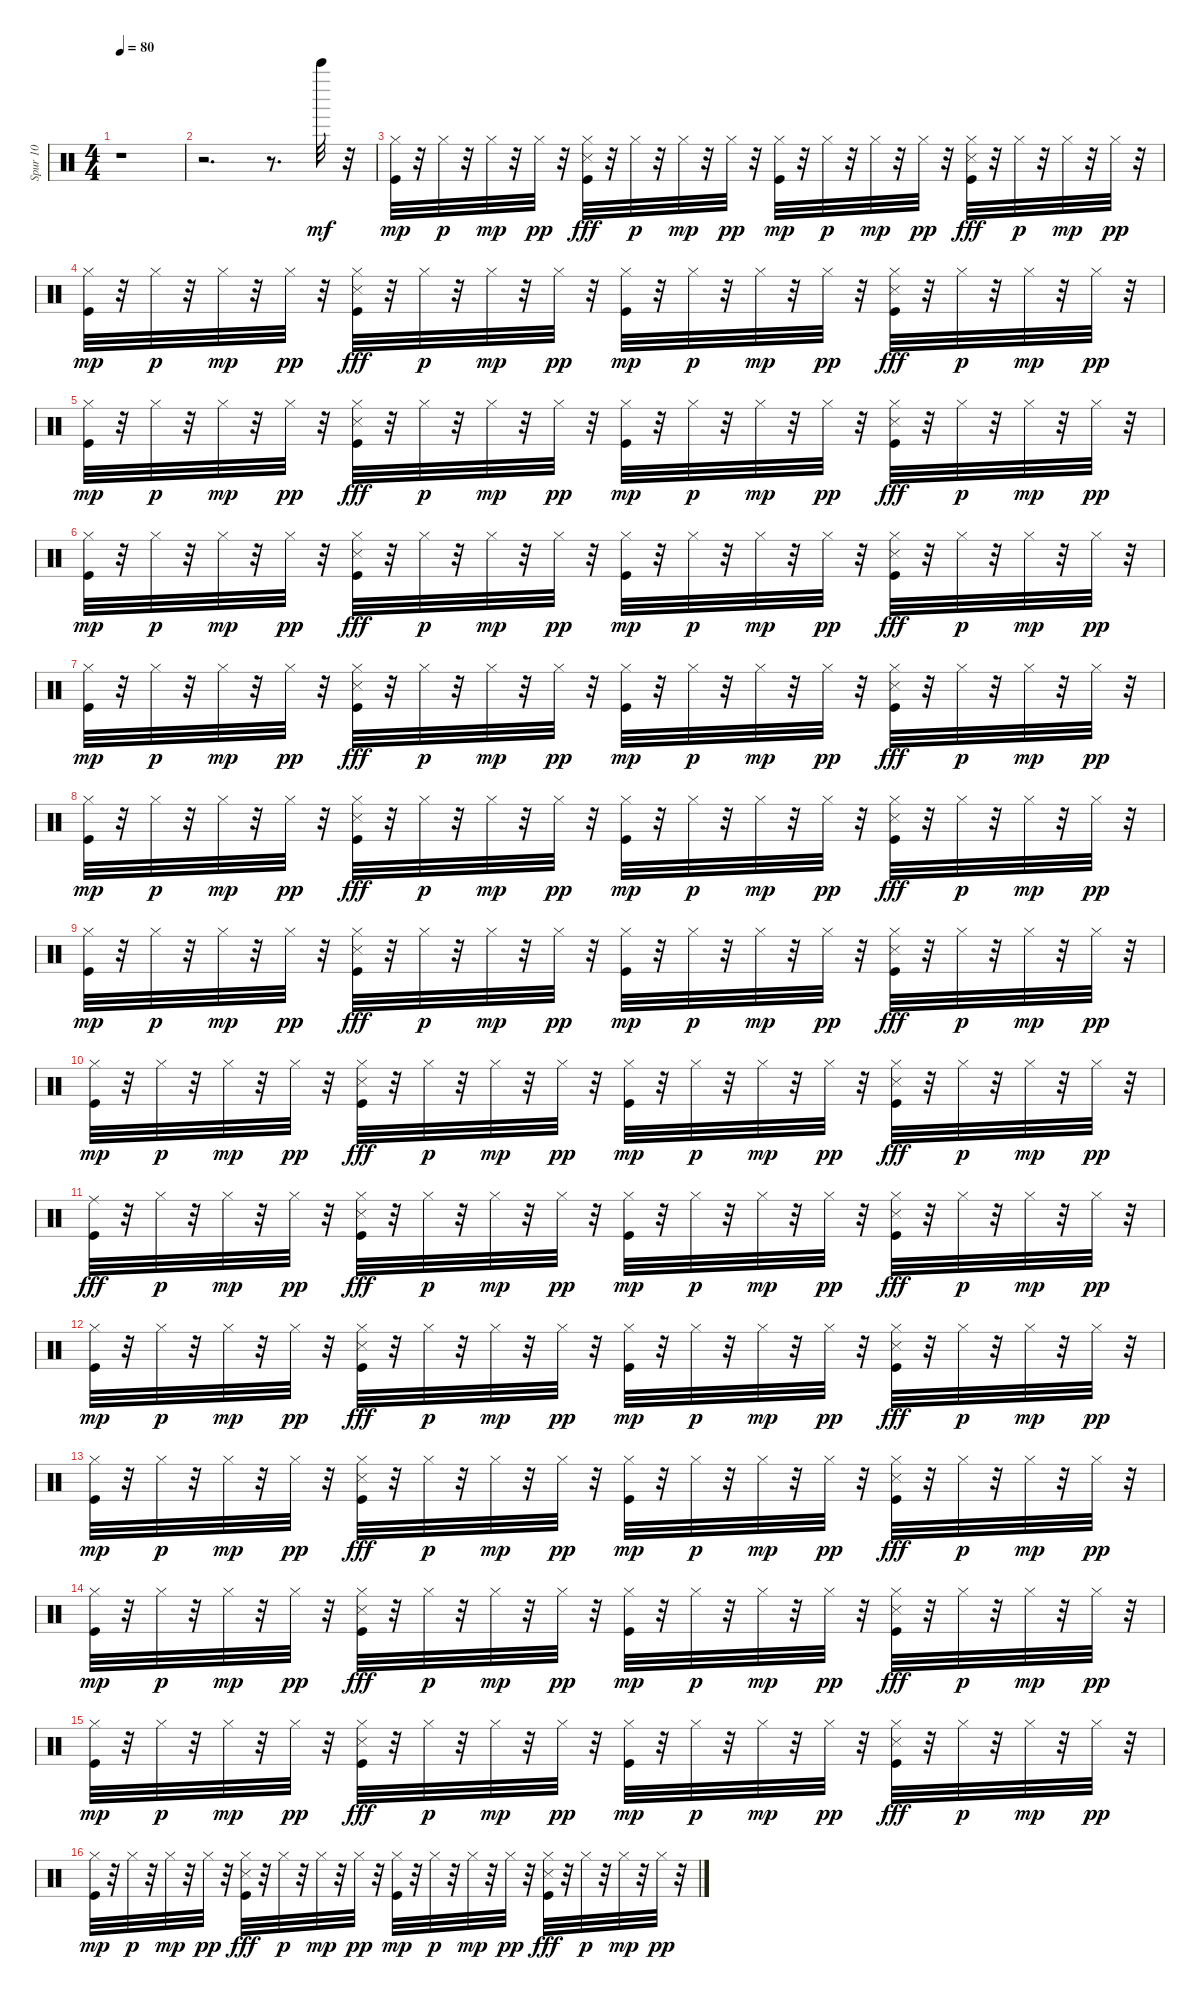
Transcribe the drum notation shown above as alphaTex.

\track ("Spur 10" "Spur 10") {instrument percussion}
\staff {score}
\articulation defaults
\ts (4 4)
\tempo 80
\clef neutral
\ks c
r.1{dy mf} |
r.2{d} r.8{d} "Bell Tree (hit)".32{volume 15} r.32 |
("Hi-Hat (closed)" "Kick (hit)").32{dy mp} r.32 "Hi-Hat (closed)".32{dy p} r.32 "Hi-Hat (closed)".32{dy mp} r.32 "Hi-Hat (closed)".32{dy pp} r.32 ("Hi-Hat (closed)" "Snare (side stick) 3" "Kick (hit)").32{dy fff} r.32 "Hi-Hat (closed)".32{dy p} r.32 "Hi-Hat (closed)".32{dy mp} r.32 "Hi-Hat (closed)".32{dy pp} r.32 ("Hi-Hat (closed)" "Kick (hit)").32{dy mp} r.32 "Hi-Hat (closed)".32{dy p} r.32 "Hi-Hat (closed)".32{dy mp} r.32 "Hi-Hat (closed)".32{dy pp} r.32 ("Hi-Hat (closed)" "Snare (side stick) 3" "Kick (hit)").32{dy fff} r.32 "Hi-Hat (closed)".32{dy p} r.32 "Hi-Hat (closed)".32{dy mp} r.32 "Hi-Hat (closed)".32{dy pp} r.32 |
("Hi-Hat (closed)" "Kick (hit)").32{dy mp} r.32 "Hi-Hat (closed)".32{dy p} r.32 "Hi-Hat (closed)".32{dy mp} r.32 "Hi-Hat (closed)".32{dy pp} r.32 ("Hi-Hat (closed)" "Snare (side stick) 3" "Kick (hit)").32{dy fff} r.32 "Hi-Hat (closed)".32{dy p} r.32 "Hi-Hat (closed)".32{dy mp} r.32 "Hi-Hat (closed)".32{dy pp} r.32 ("Hi-Hat (closed)" "Kick (hit)").32{dy mp} r.32 "Hi-Hat (closed)".32{dy p} r.32 "Hi-Hat (closed)".32{dy mp} r.32 "Hi-Hat (closed)".32{dy pp} r.32 ("Hi-Hat (closed)" "Snare (side stick) 3" "Kick (hit)").32{dy fff} r.32 "Hi-Hat (closed)".32{dy p} r.32 "Hi-Hat (closed)".32{dy mp} r.32 "Hi-Hat (closed)".32{dy pp} r.32 |
("Hi-Hat (closed)" "Kick (hit)").32{dy mp} r.32 "Hi-Hat (closed)".32{dy p} r.32 "Hi-Hat (closed)".32{dy mp} r.32 "Hi-Hat (closed)".32{dy pp} r.32 ("Hi-Hat (closed)" "Snare (side stick) 3" "Kick (hit)").32{dy fff} r.32 "Hi-Hat (closed)".32{dy p} r.32 "Hi-Hat (closed)".32{dy mp} r.32 "Hi-Hat (closed)".32{dy pp} r.32 ("Hi-Hat (closed)" "Kick (hit)").32{dy mp} r.32 "Hi-Hat (closed)".32{dy p} r.32 "Hi-Hat (closed)".32{dy mp} r.32 "Hi-Hat (closed)".32{dy pp} r.32 ("Hi-Hat (closed)" "Snare (side stick) 3" "Kick (hit)").32{dy fff} r.32 "Hi-Hat (closed)".32{dy p} r.32 "Hi-Hat (closed)".32{dy mp} r.32 "Hi-Hat (closed)".32{dy pp} r.32 |
("Hi-Hat (closed)" "Kick (hit)").32{dy mp} r.32 "Hi-Hat (closed)".32{dy p} r.32 "Hi-Hat (closed)".32{dy mp} r.32 "Hi-Hat (closed)".32{dy pp} r.32 ("Hi-Hat (closed)" "Snare (side stick) 3" "Kick (hit)").32{dy fff} r.32 "Hi-Hat (closed)".32{dy p} r.32 "Hi-Hat (closed)".32{dy mp} r.32 "Hi-Hat (closed)".32{dy pp} r.32 ("Hi-Hat (closed)" "Kick (hit)").32{dy mp} r.32 "Hi-Hat (closed)".32{dy p} r.32 "Hi-Hat (closed)".32{dy mp} r.32 "Hi-Hat (closed)".32{dy pp} r.32 ("Hi-Hat (closed)" "Snare (side stick) 3" "Kick (hit)").32{dy fff} r.32 "Hi-Hat (closed)".32{dy p} r.32 "Hi-Hat (closed)".32{dy mp} r.32 "Hi-Hat (closed)".32{dy pp} r.32 |
("Hi-Hat (closed)" "Kick (hit)").32{dy mp} r.32 "Hi-Hat (closed)".32{dy p} r.32 "Hi-Hat (closed)".32{dy mp} r.32 "Hi-Hat (closed)".32{dy pp} r.32 ("Hi-Hat (closed)" "Snare (side stick) 3" "Kick (hit)").32{dy fff} r.32 "Hi-Hat (closed)".32{dy p} r.32 "Hi-Hat (closed)".32{dy mp} r.32 "Hi-Hat (closed)".32{dy pp} r.32 ("Hi-Hat (closed)" "Kick (hit)").32{dy mp} r.32 "Hi-Hat (closed)".32{dy p} r.32 "Hi-Hat (closed)".32{dy mp} r.32 "Hi-Hat (closed)".32{dy pp} r.32 ("Hi-Hat (closed)" "Snare (side stick) 3" "Kick (hit)").32{dy fff} r.32 "Hi-Hat (closed)".32{dy p} r.32 "Hi-Hat (closed)".32{dy mp} r.32 "Hi-Hat (closed)".32{dy pp} r.32 |
("Hi-Hat (closed)" "Kick (hit)").32{dy mp} r.32 "Hi-Hat (closed)".32{dy p} r.32 "Hi-Hat (closed)".32{dy mp} r.32 "Hi-Hat (closed)".32{dy pp} r.32 ("Hi-Hat (closed)" "Snare (side stick) 3" "Kick (hit)").32{dy fff} r.32 "Hi-Hat (closed)".32{dy p} r.32 "Hi-Hat (closed)".32{dy mp} r.32 "Hi-Hat (closed)".32{dy pp} r.32 ("Hi-Hat (closed)" "Kick (hit)").32{dy mp} r.32 "Hi-Hat (closed)".32{dy p} r.32 "Hi-Hat (closed)".32{dy mp} r.32 "Hi-Hat (closed)".32{dy pp} r.32 ("Hi-Hat (closed)" "Snare (side stick) 3" "Kick (hit)").32{dy fff} r.32 "Hi-Hat (closed)".32{dy p} r.32 "Hi-Hat (closed)".32{dy mp} r.32 "Hi-Hat (closed)".32{dy pp} r.32 |
("Hi-Hat (closed)" "Kick (hit)").32{dy mp} r.32 "Hi-Hat (closed)".32{dy p} r.32 "Hi-Hat (closed)".32{dy mp} r.32 "Hi-Hat (closed)".32{dy pp} r.32 ("Hi-Hat (closed)" "Snare (side stick) 3" "Kick (hit)").32{dy fff} r.32 "Hi-Hat (closed)".32{dy p} r.32 "Hi-Hat (closed)".32{dy mp} r.32 "Hi-Hat (closed)".32{dy pp} r.32 ("Hi-Hat (closed)" "Kick (hit)").32{dy mp} r.32 "Hi-Hat (closed)".32{dy p} r.32 "Hi-Hat (closed)".32{dy mp} r.32 "Hi-Hat (closed)".32{dy pp} r.32 ("Hi-Hat (closed)" "Snare (side stick) 3" "Kick (hit)").32{dy fff} r.32 "Hi-Hat (closed)".32{dy p} r.32 "Hi-Hat (closed)".32{dy mp} r.32 "Hi-Hat (closed)".32{dy pp} r.32 |
("Hi-Hat (closed)" "Kick (hit)").32{dy mp} r.32 "Hi-Hat (closed)".32{dy p} r.32 "Hi-Hat (closed)".32{dy mp} r.32 "Hi-Hat (closed)".32{dy pp} r.32 ("Hi-Hat (closed)" "Snare (side stick) 3" "Kick (hit)").32{dy fff} r.32 "Hi-Hat (closed)".32{dy p} r.32 "Hi-Hat (closed)".32{dy mp} r.32 "Hi-Hat (closed)".32{dy pp} r.32 ("Hi-Hat (closed)" "Kick (hit)").32{dy mp} r.32 "Hi-Hat (closed)".32{dy p} r.32 "Hi-Hat (closed)".32{dy mp} r.32 "Hi-Hat (closed)".32{dy pp} r.32 ("Hi-Hat (closed)" "Snare (side stick) 3" "Kick (hit)").32{dy fff} r.32 "Hi-Hat (closed)".32{dy p} r.32 "Hi-Hat (closed)".32{dy mp} r.32 "Hi-Hat (closed)".32{dy pp} r.32 |
("Ride (middle)" "Kick (hit)").32{dy fff} r.32 "Hi-Hat (closed)".32{dy p} r.32 "Hi-Hat (closed)".32{dy mp} r.32 "Hi-Hat (closed)".32{dy pp} r.32 ("Hi-Hat (closed)" "Snare (side stick) 3" "Kick (hit)").32{dy fff} r.32 "Hi-Hat (closed)".32{dy p} r.32 "Hi-Hat (closed)".32{dy mp} r.32 "Hi-Hat (closed)".32{dy pp} r.32 ("Hi-Hat (closed)" "Kick (hit)").32{dy mp} r.32 "Hi-Hat (closed)".32{dy p} r.32 "Hi-Hat (closed)".32{dy mp} r.32 "Hi-Hat (closed)".32{dy pp} r.32 ("Hi-Hat (closed)" "Snare (side stick) 3" "Kick (hit)").32{dy fff} r.32 "Hi-Hat (closed)".32{dy p} r.32 "Hi-Hat (closed)".32{dy mp} r.32 "Hi-Hat (closed)".32{dy pp} r.32 |
("Hi-Hat (closed)" "Kick (hit)").32{dy mp} r.32 "Hi-Hat (closed)".32{dy p} r.32 "Hi-Hat (closed)".32{dy mp} r.32 "Hi-Hat (closed)".32{dy pp} r.32 ("Hi-Hat (closed)" "Snare (side stick) 3" "Kick (hit)").32{dy fff} r.32 "Hi-Hat (closed)".32{dy p} r.32 "Hi-Hat (closed)".32{dy mp} r.32 "Hi-Hat (closed)".32{dy pp} r.32 ("Hi-Hat (closed)" "Kick (hit)").32{dy mp} r.32 "Hi-Hat (closed)".32{dy p} r.32 "Hi-Hat (closed)".32{dy mp} r.32 "Hi-Hat (closed)".32{dy pp} r.32 ("Hi-Hat (closed)" "Snare (side stick) 3" "Kick (hit)").32{dy fff} r.32 "Hi-Hat (closed)".32{dy p} r.32 "Hi-Hat (closed)".32{dy mp} r.32 "Hi-Hat (closed)".32{dy pp} r.32 |
("Hi-Hat (closed)" "Kick (hit)").32{dy mp} r.32 "Hi-Hat (closed)".32{dy p} r.32 "Hi-Hat (closed)".32{dy mp} r.32 "Hi-Hat (closed)".32{dy pp} r.32 ("Hi-Hat (closed)" "Snare (side stick) 3" "Kick (hit)").32{dy fff} r.32 "Hi-Hat (closed)".32{dy p} r.32 "Hi-Hat (closed)".32{dy mp} r.32 "Hi-Hat (closed)".32{dy pp} r.32 ("Hi-Hat (closed)" "Kick (hit)").32{dy mp} r.32 "Hi-Hat (closed)".32{dy p} r.32 "Hi-Hat (closed)".32{dy mp} r.32 "Hi-Hat (closed)".32{dy pp} r.32 ("Hi-Hat (closed)" "Snare (side stick) 3" "Kick (hit)").32{dy fff} r.32 "Hi-Hat (closed)".32{dy p} r.32 "Hi-Hat (closed)".32{dy mp} r.32 "Hi-Hat (closed)".32{dy pp} r.32 |
("Hi-Hat (closed)" "Kick (hit)").32{dy mp} r.32 "Hi-Hat (closed)".32{dy p} r.32 "Hi-Hat (closed)".32{dy mp} r.32 "Hi-Hat (closed)".32{dy pp} r.32 ("Hi-Hat (closed)" "Snare (side stick) 3" "Kick (hit)").32{dy fff} r.32 "Hi-Hat (closed)".32{dy p} r.32 "Hi-Hat (closed)".32{dy mp} r.32 "Hi-Hat (closed)".32{dy pp} r.32 ("Hi-Hat (closed)" "Kick (hit)").32{dy mp} r.32 "Hi-Hat (closed)".32{dy p} r.32 "Hi-Hat (closed)".32{dy mp} r.32 "Hi-Hat (closed)".32{dy pp} r.32 ("Hi-Hat (closed)" "Snare (side stick) 3" "Kick (hit)").32{dy fff} r.32 "Hi-Hat (closed)".32{dy p} r.32 "Hi-Hat (closed)".32{dy mp} r.32 "Hi-Hat (closed)".32{dy pp} r.32 |
("Hi-Hat (closed)" "Kick (hit)").32{dy mp} r.32 "Hi-Hat (closed)".32{dy p} r.32 "Hi-Hat (closed)".32{dy mp} r.32 "Hi-Hat (closed)".32{dy pp} r.32 ("Hi-Hat (closed)" "Snare (side stick) 3" "Kick (hit)").32{dy fff} r.32 "Hi-Hat (closed)".32{dy p} r.32 "Hi-Hat (closed)".32{dy mp} r.32 "Hi-Hat (closed)".32{dy pp} r.32 ("Hi-Hat (closed)" "Kick (hit)").32{dy mp} r.32 "Hi-Hat (closed)".32{dy p} r.32 "Hi-Hat (closed)".32{dy mp} r.32 "Hi-Hat (closed)".32{dy pp} r.32 ("Hi-Hat (closed)" "Snare (side stick) 3" "Kick (hit)").32{dy fff} r.32 "Hi-Hat (closed)".32{dy p} r.32 "Hi-Hat (closed)".32{dy mp} r.32 "Hi-Hat (closed)".32{dy pp} r.32 |
("Hi-Hat (closed)" "Kick (hit)").32{dy mp} r.32 "Hi-Hat (closed)".32{dy p} r.32 "Hi-Hat (closed)".32{dy mp} r.32 "Hi-Hat (closed)".32{dy pp} r.32 ("Hi-Hat (closed)" "Snare (side stick) 3" "Kick (hit)").32{dy fff} r.32 "Hi-Hat (closed)".32{dy p} r.32 "Hi-Hat (closed)".32{dy mp} r.32 "Hi-Hat (closed)".32{dy pp} r.32 ("Hi-Hat (closed)" "Kick (hit)").32{dy mp} r.32 "Hi-Hat (closed)".32{dy p} r.32 "Hi-Hat (closed)".32{dy mp} r.32 "Hi-Hat (closed)".32{dy pp} r.32 ("Hi-Hat (closed)" "Snare (side stick) 3" "Kick (hit)").32{dy fff} r.32 "Hi-Hat (closed)".32{dy p} r.32 "Hi-Hat (closed)".32{dy mp} r.32 "Hi-Hat (closed)".32{dy pp} r.32
